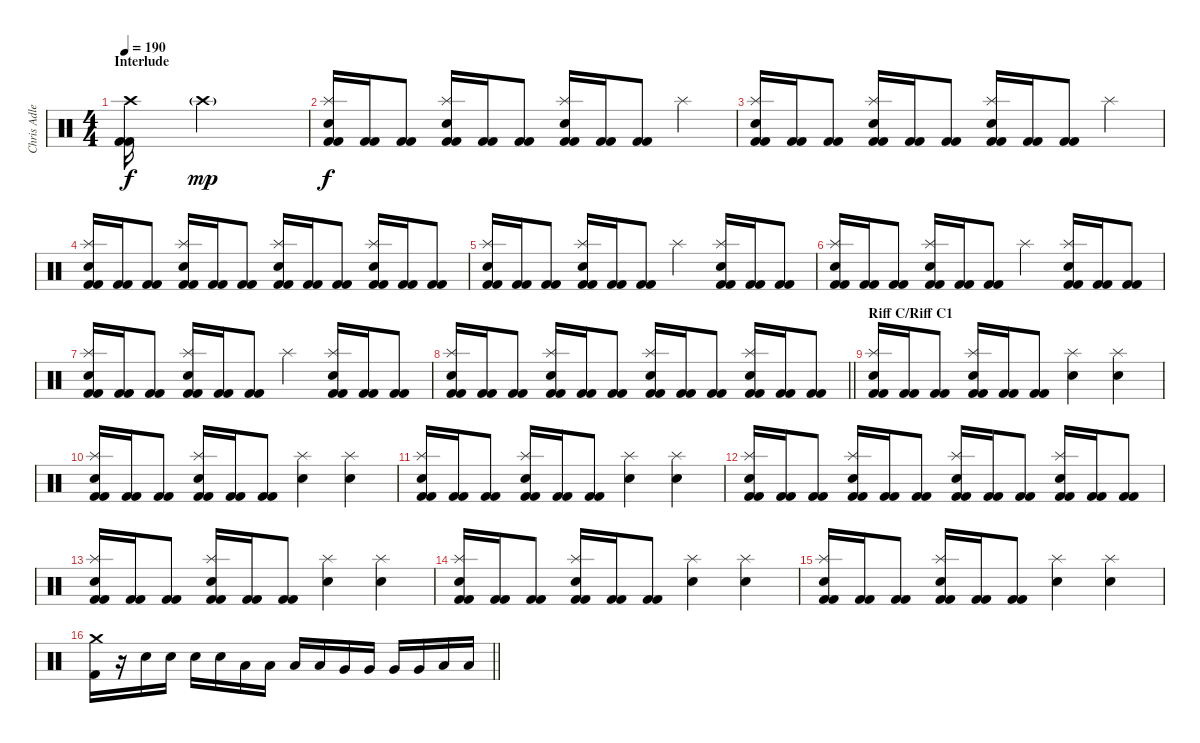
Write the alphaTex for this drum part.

\track ("Chris Adler" "Chris Adle") {instrument percussion}
\staff {score}
\articulation defaults
\ts (4 4)
\section ("" "Interlude")
\tempo 190
\clef neutral
\ks c
("Kick (hit) 2" "Kick (hit) 2" "Crash high (hit)").16{dy f} "Crash high (hit)"{g}.4{dy mp} |
("Splash (hit)" "Electric Snare (hit)" "Kick (hit) 2" "Kick (hit) 2").16{dy f} ("Kick (hit) 2" "Kick (hit) 2").16 ("Kick (hit) 2" "Kick (hit) 2").8 ("Splash (hit)" "Electric Snare (hit)" "Kick (hit) 2" "Kick (hit) 2").16 ("Kick (hit) 2" "Kick (hit) 2").16 ("Kick (hit) 2" "Kick (hit) 2").8 ("Splash (hit)" "Electric Snare (hit)" "Kick (hit) 2" "Kick (hit) 2").16 ("Kick (hit) 2" "Kick (hit) 2").16 ("Kick (hit) 2" "Kick (hit) 2").8 "Splash (hit)".4 |
("Splash (hit)" "Electric Snare (hit)" "Kick (hit) 2" "Kick (hit) 2").16 ("Kick (hit) 2" "Kick (hit) 2").16 ("Kick (hit) 2" "Kick (hit) 2").8 ("Splash (hit)" "Electric Snare (hit)" "Kick (hit) 2" "Kick (hit) 2").16 ("Kick (hit) 2" "Kick (hit) 2").16 ("Kick (hit) 2" "Kick (hit) 2").8 ("Splash (hit)" "Electric Snare (hit)" "Kick (hit) 2" "Kick (hit) 2").16 ("Kick (hit) 2" "Kick (hit) 2").16 ("Kick (hit) 2" "Kick (hit) 2").8 "Splash (hit)".4 |
("Splash (hit)" "Electric Snare (hit)" "Kick (hit) 2" "Kick (hit) 2").16 ("Kick (hit) 2" "Kick (hit) 2").16 ("Kick (hit) 2" "Kick (hit) 2").8 ("Splash (hit)" "Electric Snare (hit)" "Kick (hit) 2" "Kick (hit) 2").16 ("Kick (hit) 2" "Kick (hit) 2").16 ("Kick (hit) 2" "Kick (hit) 2").8 ("Splash (hit)" "Electric Snare (hit)" "Kick (hit) 2" "Kick (hit) 2").16 ("Kick (hit) 2" "Kick (hit) 2").16 ("Kick (hit) 2" "Kick (hit) 2").8 ("Splash (hit)" "Electric Snare (hit)" "Kick (hit) 2" "Kick (hit) 2").16 ("Kick (hit) 2" "Kick (hit) 2").16 ("Kick (hit) 2" "Kick (hit) 2").8 |
("Splash (hit)" "Electric Snare (hit)" "Kick (hit) 2" "Kick (hit) 2").16 ("Kick (hit) 2" "Kick (hit) 2").16 ("Kick (hit) 2" "Kick (hit) 2").8 ("Splash (hit)" "Electric Snare (hit)" "Kick (hit) 2" "Kick (hit) 2").16 ("Kick (hit) 2" "Kick (hit) 2").16 ("Kick (hit) 2" "Kick (hit) 2").8 "Splash (hit)".4 ("Splash (hit)" "Electric Snare (hit)" "Kick (hit) 2" "Kick (hit) 2").16 ("Kick (hit) 2" "Kick (hit) 2").16 ("Kick (hit) 2" "Kick (hit) 2").8 |
("Splash (hit)" "Electric Snare (hit)" "Kick (hit) 2" "Kick (hit) 2").16 ("Kick (hit) 2" "Kick (hit) 2").16 ("Kick (hit) 2" "Kick (hit) 2").8 ("Splash (hit)" "Electric Snare (hit)" "Kick (hit) 2" "Kick (hit) 2").16 ("Kick (hit) 2" "Kick (hit) 2").16 ("Kick (hit) 2" "Kick (hit) 2").8 "Splash (hit)".4 ("Splash (hit)" "Electric Snare (hit)" "Kick (hit) 2" "Kick (hit) 2").16 ("Kick (hit) 2" "Kick (hit) 2").16 ("Kick (hit) 2" "Kick (hit) 2").8 |
("Splash (hit)" "Electric Snare (hit)" "Kick (hit) 2" "Kick (hit) 2").16 ("Kick (hit) 2" "Kick (hit) 2").16 ("Kick (hit) 2" "Kick (hit) 2").8 ("Splash (hit)" "Electric Snare (hit)" "Kick (hit) 2" "Kick (hit) 2").16 ("Kick (hit) 2" "Kick (hit) 2").16 ("Kick (hit) 2" "Kick (hit) 2").8 "Splash (hit)".4 ("Splash (hit)" "Electric Snare (hit)" "Kick (hit) 2" "Kick (hit) 2").16 ("Kick (hit) 2" "Kick (hit) 2").16 ("Kick (hit) 2" "Kick (hit) 2").8 |
\barLineRight lightlight
("Splash (hit)" "Electric Snare (hit)" "Kick (hit) 2" "Kick (hit) 2").16 ("Kick (hit) 2" "Kick (hit) 2").16 ("Kick (hit) 2" "Kick (hit) 2").8 ("Splash (hit)" "Electric Snare (hit)" "Kick (hit) 2" "Kick (hit) 2").16 ("Kick (hit) 2" "Kick (hit) 2").16 ("Kick (hit) 2" "Kick (hit) 2").8 ("Splash (hit)" "Electric Snare (hit)" "Kick (hit) 2" "Kick (hit) 2").16 ("Kick (hit) 2" "Kick (hit) 2").16 ("Kick (hit) 2" "Kick (hit) 2").8 ("Splash (hit)" "Electric Snare (hit)" "Kick (hit) 2" "Kick (hit) 2").16 ("Kick (hit) 2" "Kick (hit) 2").16 ("Kick (hit) 2" "Kick (hit) 2").8 |
\section ("" "Riff C/Riff C1")
("Splash (hit)" "Electric Snare (hit)" "Kick (hit) 2" "Kick (hit) 2").16 ("Kick (hit) 2" "Kick (hit) 2").16 ("Kick (hit) 2" "Kick (hit) 2").8 ("Splash (hit)" "Electric Snare (hit)" "Kick (hit) 2" "Kick (hit) 2").16 ("Kick (hit) 2" "Kick (hit) 2").16 ("Kick (hit) 2" "Kick (hit) 2").8 ("Splash (hit)" "Electric Snare (hit)").4 ("Splash (hit)" "Electric Snare (hit)").4 |
("Splash (hit)" "Electric Snare (hit)" "Kick (hit) 2" "Kick (hit) 2").16 ("Kick (hit) 2" "Kick (hit) 2").16 ("Kick (hit) 2" "Kick (hit) 2").8 ("Splash (hit)" "Electric Snare (hit)" "Kick (hit) 2" "Kick (hit) 2").16 ("Kick (hit) 2" "Kick (hit) 2").16 ("Kick (hit) 2" "Kick (hit) 2").8 ("Splash (hit)" "Electric Snare (hit)").4 ("Splash (hit)" "Electric Snare (hit)").4 |
("Splash (hit)" "Electric Snare (hit)" "Kick (hit) 2" "Kick (hit) 2").16 ("Kick (hit) 2" "Kick (hit) 2").16 ("Kick (hit) 2" "Kick (hit) 2").8 ("Splash (hit)" "Electric Snare (hit)" "Kick (hit) 2" "Kick (hit) 2").16 ("Kick (hit) 2" "Kick (hit) 2").16 ("Kick (hit) 2" "Kick (hit) 2").8 ("Splash (hit)" "Electric Snare (hit)").4 ("Splash (hit)" "Electric Snare (hit)").4 |
("Splash (hit)" "Electric Snare (hit)" "Kick (hit) 2" "Kick (hit) 2").16 ("Kick (hit) 2" "Kick (hit) 2").16 ("Kick (hit) 2" "Kick (hit) 2").8 ("Splash (hit)" "Electric Snare (hit)" "Kick (hit) 2" "Kick (hit) 2").16 ("Kick (hit) 2" "Kick (hit) 2").16 ("Kick (hit) 2" "Kick (hit) 2").8 ("Splash (hit)" "Electric Snare (hit)" "Kick (hit) 2" "Kick (hit) 2").16 ("Kick (hit) 2" "Kick (hit) 2").16 ("Kick (hit) 2" "Kick (hit) 2").8 ("Splash (hit)" "Electric Snare (hit)" "Kick (hit) 2" "Kick (hit) 2").16 ("Kick (hit) 2" "Kick (hit) 2").16 ("Kick (hit) 2" "Kick (hit) 2").8 |
("Splash (hit)" "Electric Snare (hit)" "Kick (hit) 2" "Kick (hit) 2").16 ("Kick (hit) 2" "Kick (hit) 2").16 ("Kick (hit) 2" "Kick (hit) 2").8 ("Splash (hit)" "Electric Snare (hit)" "Kick (hit) 2" "Kick (hit) 2").16 ("Kick (hit) 2" "Kick (hit) 2").16 ("Kick (hit) 2" "Kick (hit) 2").8 ("Splash (hit)" "Electric Snare (hit)").4 ("Splash (hit)" "Electric Snare (hit)").4 |
("Splash (hit)" "Electric Snare (hit)" "Kick (hit) 2" "Kick (hit) 2").16 ("Kick (hit) 2" "Kick (hit) 2").16 ("Kick (hit) 2" "Kick (hit) 2").8 ("Splash (hit)" "Electric Snare (hit)" "Kick (hit) 2" "Kick (hit) 2").16 ("Kick (hit) 2" "Kick (hit) 2").16 ("Kick (hit) 2" "Kick (hit) 2").8 ("Splash (hit)" "Electric Snare (hit)").4 ("Splash (hit)" "Electric Snare (hit)").4 |
("Splash (hit)" "Electric Snare (hit)" "Kick (hit) 2" "Kick (hit) 2").16 ("Kick (hit) 2" "Kick (hit) 2").16 ("Kick (hit) 2" "Kick (hit) 2").8 ("Splash (hit)" "Electric Snare (hit)" "Kick (hit) 2" "Kick (hit) 2").16 ("Kick (hit) 2" "Kick (hit) 2").16 ("Kick (hit) 2" "Kick (hit) 2").8 ("Splash (hit)" "Electric Snare (hit)").4 ("Splash (hit)" "Electric Snare (hit)").4 |
\barLineRight lightlight
("Kick (hit) 2" "Crash medium (hit)").16 r.16 "Electric Snare (hit)".16 "Electric Snare (hit)".16 "Electric Snare (hit)".16 "Electric Snare (hit)".16 "Low Tom (hit)".16 "Low Tom (hit)".16 "Low Tom (hit)".16 "Low Tom (hit)".16 "Very Low Tom (hit)".16 "Very Low Tom (hit)".16 "Very Low Tom (hit)".16 "Very Low Tom (hit)".16 "Low Floor Tom (hit)".16 "Low Floor Tom (hit)".16
